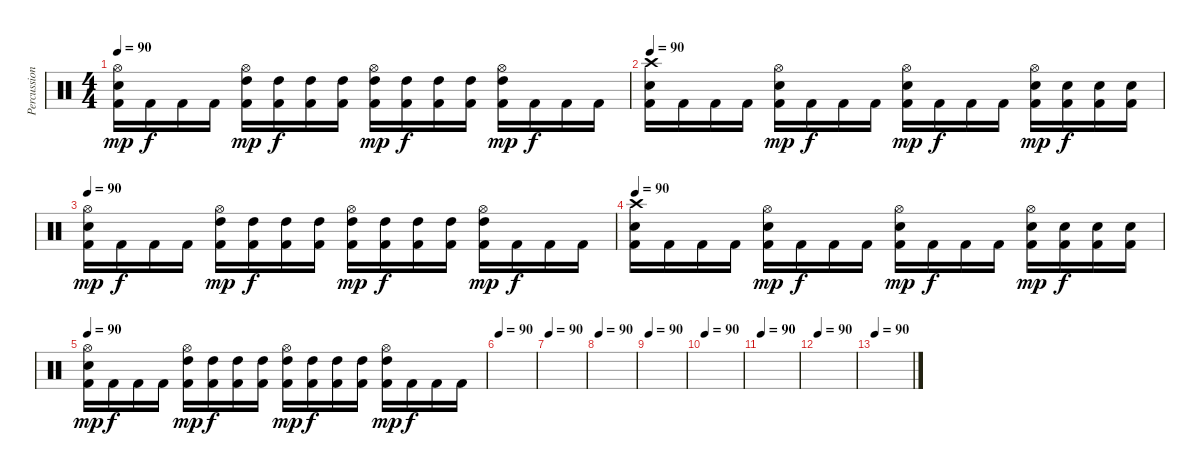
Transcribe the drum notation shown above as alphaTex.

\track ("Percussions" "Percussion") {instrument percussion}
\staff {score}
\articulation defaults
\ts (4 4)
\tempo 90
\clef neutral
\ks c
("Hi-Hat (open)" "Electric Snare (hit)" "Kick (hit) 2").16{dy mp} "Kick (hit) 2".16{dy f} "Kick (hit) 2".16 "Kick (hit) 2".16 ("Hi-Hat (open)" "High Tom (hit)" "Kick (hit) 2").16{dy mp} ("High Tom (hit)" "Kick (hit) 2").16{dy f} ("High Tom (hit)" "Kick (hit) 2").16 ("High Tom (hit)" "Kick (hit) 2").16 ("Hi-Hat (open)" "High Tom (hit)" "Kick (hit) 2").16{dy mp} ("High Tom (hit)" "Kick (hit) 2").16{dy f} ("High Tom (hit)" "Kick (hit) 2").16 ("High Tom (hit)" "Kick (hit) 2").16 ("Hi-Hat (open)" "High Tom (hit)" "Kick (hit) 2").16{dy mp} "Kick (hit) 2".16{dy f} "Kick (hit) 2".16 "Kick (hit) 2".16 |
\tempo 90
("Crash high (hit)" "Electric Snare (hit)" "Kick (hit) 2").16 "Kick (hit) 2".16 "Kick (hit) 2".16 "Kick (hit) 2".16 ("Hi-Hat (open)" "Electric Snare (hit)" "Kick (hit) 2").16{dy mp} "Kick (hit) 2".16{dy f} "Kick (hit) 2".16 "Kick (hit) 2".16 ("Hi-Hat (open)" "Electric Snare (hit)" "Kick (hit) 2").16{dy mp} "Kick (hit) 2".16{dy f} "Kick (hit) 2".16 "Kick (hit) 2".16 ("Hi-Hat (open)" "Electric Snare (hit)" "Kick (hit) 2").16{dy mp} ("Electric Snare (hit)" "Kick (hit) 2").16{dy f} ("Electric Snare (hit)" "Kick (hit) 2").16 ("Electric Snare (hit)" "Kick (hit) 2").16 |
\tempo 90
("Hi-Hat (open)" "Electric Snare (hit)" "Kick (hit) 2").16{dy mp} "Kick (hit) 2".16{dy f} "Kick (hit) 2".16 "Kick (hit) 2".16 ("Hi-Hat (open)" "High Tom (hit)" "Kick (hit) 2").16{dy mp} ("High Tom (hit)" "Kick (hit) 2").16{dy f} ("High Tom (hit)" "Kick (hit) 2").16 ("High Tom (hit)" "Kick (hit) 2").16 ("Hi-Hat (open)" "High Tom (hit)" "Kick (hit) 2").16{dy mp} ("High Tom (hit)" "Kick (hit) 2").16{dy f} ("High Tom (hit)" "Kick (hit) 2").16 ("High Tom (hit)" "Kick (hit) 2").16 ("Hi-Hat (open)" "High Tom (hit)" "Kick (hit) 2").16{dy mp} "Kick (hit) 2".16{dy f} "Kick (hit) 2".16 "Kick (hit) 2".16 |
\tempo 90
("Crash high (hit)" "Electric Snare (hit)" "Kick (hit) 2").16 "Kick (hit) 2".16 "Kick (hit) 2".16 "Kick (hit) 2".16 ("Hi-Hat (open)" "Electric Snare (hit)" "Kick (hit) 2").16{dy mp} "Kick (hit) 2".16{dy f} "Kick (hit) 2".16 "Kick (hit) 2".16 ("Hi-Hat (open)" "Electric Snare (hit)" "Kick (hit) 2").16{dy mp} "Kick (hit) 2".16{dy f} "Kick (hit) 2".16 "Kick (hit) 2".16 ("Hi-Hat (open)" "Electric Snare (hit)" "Kick (hit) 2").16{dy mp} ("Electric Snare (hit)" "Kick (hit) 2").16{dy f} ("Electric Snare (hit)" "Kick (hit) 2").16 ("Electric Snare (hit)" "Kick (hit) 2").16 |
\tempo 90
("Hi-Hat (open)" "Electric Snare (hit)" "Kick (hit) 2").16{dy mp} "Kick (hit) 2".16{dy f} "Kick (hit) 2".16 "Kick (hit) 2".16 ("Hi-Hat (open)" "High Tom (hit)" "Kick (hit) 2").16{dy mp} ("High Tom (hit)" "Kick (hit) 2").16{dy f} ("High Tom (hit)" "Kick (hit) 2").16 ("High Tom (hit)" "Kick (hit) 2").16 ("Hi-Hat (open)" "High Tom (hit)" "Kick (hit) 2").16{dy mp} ("High Tom (hit)" "Kick (hit) 2").16{dy f} ("High Tom (hit)" "Kick (hit) 2").16 ("High Tom (hit)" "Kick (hit) 2").16 ("Hi-Hat (open)" "High Tom (hit)" "Kick (hit) 2").16{dy mp} "Kick (hit) 2".16{dy f} "Kick (hit) 2".16 "Kick (hit) 2".16 |
\tempo 90
|
\tempo 90
|
\tempo 90
|
\tempo 90
|
\tempo 90
|
\tempo 90
|
\tempo 90
|
\tempo 90
